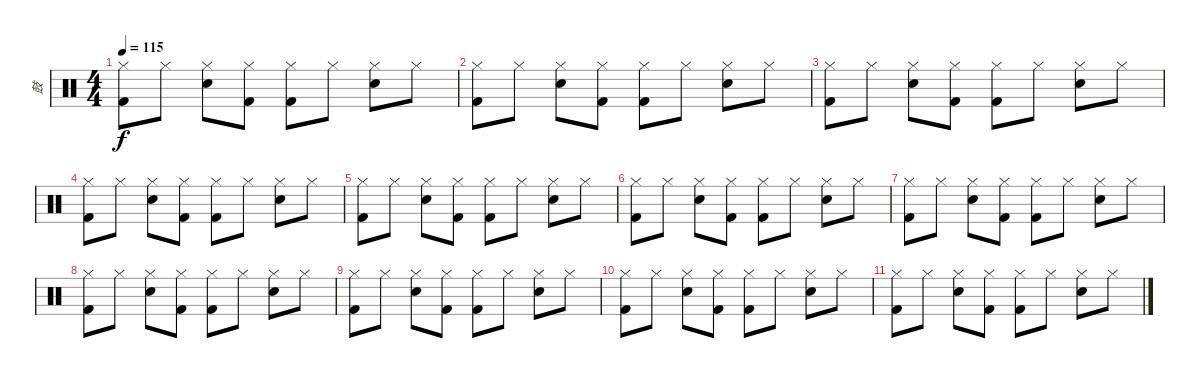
\track ("鼓" "鼓") {instrument percussion}
\staff {score}
\articulation defaults
\ts (4 4)
\tempo 115
\clef neutral
\ks c
("Hi-Hat (closed)" "Kick (hit) 2").8{dy f volume 7} "Hi-Hat (closed)".8 ("Hi-Hat (closed)" "Electric Snare (hit)").8 ("Hi-Hat (closed)" "Kick (hit) 2").8 ("Hi-Hat (closed)" "Kick (hit) 2").8 "Hi-Hat (closed)".8 ("Hi-Hat (closed)" "Electric Snare (hit)").8 "Hi-Hat (closed)".8 |
("Hi-Hat (closed)" "Kick (hit) 2").8{volume 6} "Hi-Hat (closed)".8 ("Hi-Hat (closed)" "Electric Snare (hit)").8 ("Hi-Hat (closed)" "Kick (hit) 2").8 ("Hi-Hat (closed)" "Kick (hit) 2").8 "Hi-Hat (closed)".8 ("Hi-Hat (closed)" "Electric Snare (hit)").8 "Hi-Hat (closed)".8 |
("Hi-Hat (closed)" "Kick (hit) 2").8{volume 5} "Hi-Hat (closed)".8 ("Hi-Hat (closed)" "Electric Snare (hit)").8 ("Hi-Hat (closed)" "Kick (hit) 2").8 ("Hi-Hat (closed)" "Kick (hit) 2").8 "Hi-Hat (closed)".8 ("Hi-Hat (closed)" "Electric Snare (hit)").8 "Hi-Hat (closed)".8 |
("Hi-Hat (closed)" "Kick (hit) 2").8{volume 4} "Hi-Hat (closed)".8 ("Hi-Hat (closed)" "Electric Snare (hit)").8 ("Hi-Hat (closed)" "Kick (hit) 2").8 ("Hi-Hat (closed)" "Kick (hit) 2").8 "Hi-Hat (closed)".8 ("Hi-Hat (closed)" "Electric Snare (hit)").8 "Hi-Hat (closed)".8 |
("Hi-Hat (closed)" "Kick (hit) 2").8{volume 3} "Hi-Hat (closed)".8 ("Hi-Hat (closed)" "Electric Snare (hit)").8 ("Hi-Hat (closed)" "Kick (hit) 2").8 ("Hi-Hat (closed)" "Kick (hit) 2").8 "Hi-Hat (closed)".8 ("Hi-Hat (closed)" "Electric Snare (hit)").8 "Hi-Hat (closed)".8 |
("Hi-Hat (closed)" "Kick (hit) 2").8{volume 2} "Hi-Hat (closed)".8 ("Hi-Hat (closed)" "Electric Snare (hit)").8 ("Hi-Hat (closed)" "Kick (hit) 2").8 ("Hi-Hat (closed)" "Kick (hit) 2").8 "Hi-Hat (closed)".8 ("Hi-Hat (closed)" "Electric Snare (hit)").8 "Hi-Hat (closed)".8 |
("Hi-Hat (closed)" "Kick (hit) 2").8{volume 1} "Hi-Hat (closed)".8 ("Hi-Hat (closed)" "Electric Snare (hit)").8 ("Hi-Hat (closed)" "Kick (hit) 2").8 ("Hi-Hat (closed)" "Kick (hit) 2").8 "Hi-Hat (closed)".8 ("Hi-Hat (closed)" "Electric Snare (hit)").8 "Hi-Hat (closed)".8 |
("Hi-Hat (closed)" "Kick (hit) 2").8{volume 0} "Hi-Hat (closed)".8 ("Hi-Hat (closed)" "Electric Snare (hit)").8 ("Hi-Hat (closed)" "Kick (hit) 2").8 ("Hi-Hat (closed)" "Kick (hit) 2").8 "Hi-Hat (closed)".8 ("Hi-Hat (closed)" "Electric Snare (hit)").8 "Hi-Hat (closed)".8 |
("Hi-Hat (closed)" "Kick (hit) 2").8 "Hi-Hat (closed)".8 ("Hi-Hat (closed)" "Electric Snare (hit)").8 ("Hi-Hat (closed)" "Kick (hit) 2").8 ("Hi-Hat (closed)" "Kick (hit) 2").8 "Hi-Hat (closed)".8 ("Hi-Hat (closed)" "Electric Snare (hit)").8 "Hi-Hat (closed)".8 |
("Hi-Hat (closed)" "Kick (hit) 2").8 "Hi-Hat (closed)".8 ("Hi-Hat (closed)" "Electric Snare (hit)").8 ("Hi-Hat (closed)" "Kick (hit) 2").8 ("Hi-Hat (closed)" "Kick (hit) 2").8 "Hi-Hat (closed)".8 ("Hi-Hat (closed)" "Electric Snare (hit)").8 "Hi-Hat (closed)".8 |
("Hi-Hat (closed)" "Kick (hit) 2").8 "Hi-Hat (closed)".8 ("Hi-Hat (closed)" "Electric Snare (hit)").8 ("Hi-Hat (closed)" "Kick (hit) 2").8 ("Hi-Hat (closed)" "Kick (hit) 2").8 "Hi-Hat (closed)".8 ("Hi-Hat (closed)" "Electric Snare (hit)").8 "Hi-Hat (closed)".8
